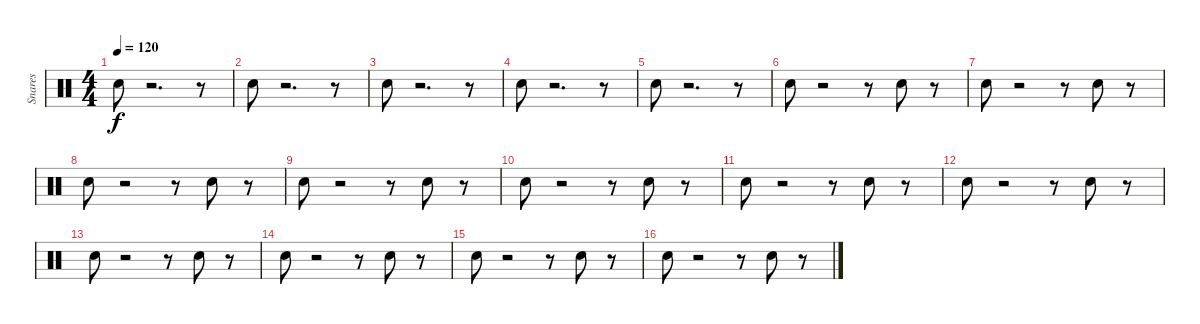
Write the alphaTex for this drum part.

\track ("Snares              " "Snares    ") {instrument percussion}
\staff {score}
\articulation defaults
\ts (4 4)
\tempo 120
\clef neutral
\ks c "Snare (hit) 2".8{dy f}
r.2{d} r.8 |
"Snare (hit) 2".8 r.2{d} r.8 |
"Snare (hit) 2".8 r.2{d} r.8 |
"Snare (hit) 2".8 r.2{d} r.8 |
"Snare (hit) 2".8 r.2{d} r.8 |
"Snare (hit) 2".8 r.2 r.8 "Snare (hit) 2".8 r.8 |
"Snare (hit) 2".8 r.2 r.8 "Snare (hit) 2".8 r.8 |
"Snare (hit) 2".8 r.2 r.8 "Snare (hit) 2".8 r.8 |
"Snare (hit) 2".8 r.2 r.8 "Snare (hit) 2".8 r.8 |
"Snare (hit) 2".8 r.2 r.8 "Snare (hit) 2".8 r.8 |
"Snare (hit) 2".8 r.2 r.8 "Snare (hit) 2".8 r.8 |
"Snare (hit) 2".8 r.2 r.8 "Snare (hit) 2".8 r.8 |
"Snare (hit) 2".8 r.2 r.8 "Snare (hit) 2".8 r.8 |
"Snare (hit) 2".8 r.2 r.8 "Snare (hit) 2".8 r.8 |
"Snare (hit) 2".8 r.2 r.8 "Snare (hit) 2".8 r.8 |
"Snare (hit) 2".8 r.2 r.8 "Snare (hit) 2".8 r.8
